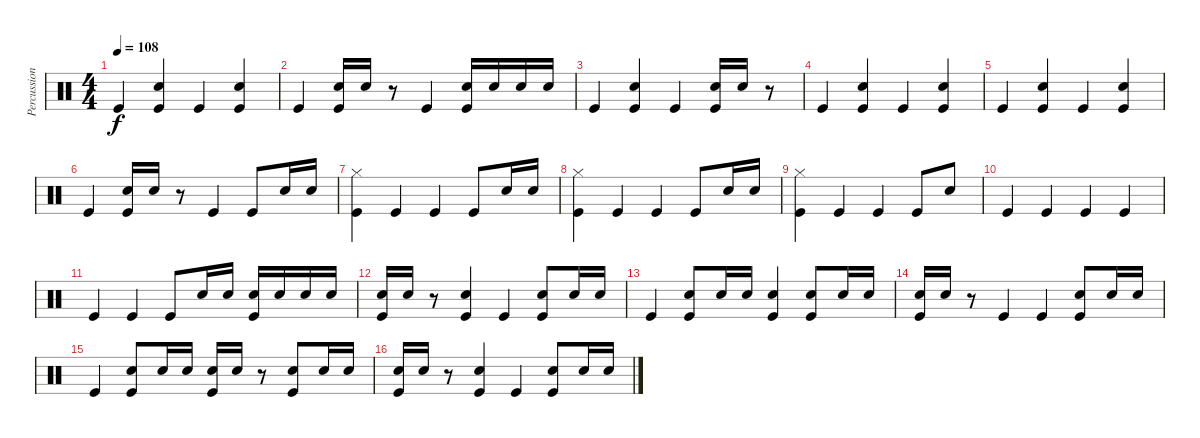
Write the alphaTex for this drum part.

\track ("Percussion" "Percussion") {instrument percussion}
\staff {score}
\articulation defaults
\ts (4 4)
\tempo 108
\clef neutral
\ks c "Kick (hit)".4{dy f}
("Snare (hit) 2" "Kick (hit)").4 "Kick (hit)".4 ("Snare (hit) 2" "Kick (hit)").4 |
"Kick (hit)".4 ("Snare (hit) 2" "Kick (hit)").16 "Snare (hit) 2".16 r.8 "Kick (hit)".4 ("Snare (hit) 2" "Kick (hit)").16 "Snare (hit) 2".16 "Snare (hit) 2".16 "Snare (hit) 2".16 |
"Kick (hit)".4 ("Snare (hit) 2" "Kick (hit)").4 "Kick (hit)".4 ("Snare (hit) 2" "Kick (hit)").16 "Snare (hit) 2".16 r.8 |
"Kick (hit)".4 ("Snare (hit) 2" "Kick (hit)").4 "Kick (hit)".4 ("Snare (hit) 2" "Kick (hit)").4 |
"Kick (hit)".4 ("Snare (hit) 2" "Kick (hit)").4 "Kick (hit)".4 ("Snare (hit) 2" "Kick (hit)").4 |
"Kick (hit)".4 ("Snare (hit) 2" "Kick (hit)").16 "Snare (hit) 2".16 r.8 "Kick (hit)".4 "Kick (hit)".8 "Snare (hit) 2".16 "Snare (hit) 2".16 |
("Hi-Hat (closed)" "Kick (hit)").4 "Kick (hit)".4 "Kick (hit)".4 "Kick (hit)".8 "Snare (hit) 2".16 "Snare (hit) 2".16 |
("Hi-Hat (closed)" "Kick (hit)").4 "Kick (hit)".4 "Kick (hit)".4 "Kick (hit)".8 "Snare (hit) 2".16 "Snare (hit) 2".16 |
("Hi-Hat (closed)" "Kick (hit)").4 "Kick (hit)".4 "Kick (hit)".4 "Kick (hit)".8 "Snare (hit) 2".8 |
"Kick (hit)".4 "Kick (hit)".4 "Kick (hit)".4 "Kick (hit)".4 |
"Kick (hit)".4 "Kick (hit)".4 "Kick (hit)".8 "Snare (hit) 2".16 "Snare (hit) 2".16 ("Snare (hit) 2" "Kick (hit)").16 "Snare (hit) 2".16 "Snare (hit) 2".16 "Snare (hit) 2".16 |
("Snare (hit) 2" "Kick (hit)").16 "Snare (hit) 2".16 r.8 ("Snare (hit) 2" "Kick (hit)").4 "Kick (hit)".4 ("Snare (hit) 2" "Kick (hit)").8 "Snare (hit) 2".16 "Snare (hit) 2".16 |
"Kick (hit)".4 ("Snare (hit) 2" "Kick (hit)").8 "Snare (hit) 2".16 "Snare (hit) 2".16 ("Snare (hit) 2" "Kick (hit)").4 ("Snare (hit) 2" "Kick (hit)").8 "Snare (hit) 2".16 "Snare (hit) 2".16 |
("Snare (hit) 2" "Kick (hit)").16 "Snare (hit) 2".16 r.8 "Kick (hit)".4 "Kick (hit)".4 ("Snare (hit) 2" "Kick (hit)").8 "Snare (hit) 2".16 "Snare (hit) 2".16 |
"Kick (hit)".4 ("Snare (hit) 2" "Kick (hit)").8 "Snare (hit) 2".16 "Snare (hit) 2".16 ("Snare (hit) 2" "Kick (hit)").16 "Snare (hit) 2".16 r.8 ("Snare (hit) 2" "Kick (hit)").8 "Snare (hit) 2".16 "Snare (hit) 2".16 |
("Snare (hit) 2" "Kick (hit)").16 "Snare (hit) 2".16 r.8 ("Snare (hit) 2" "Kick (hit)").4 "Kick (hit)".4 ("Snare (hit) 2" "Kick (hit)").8 "Snare (hit) 2".16 "Snare (hit) 2".16
